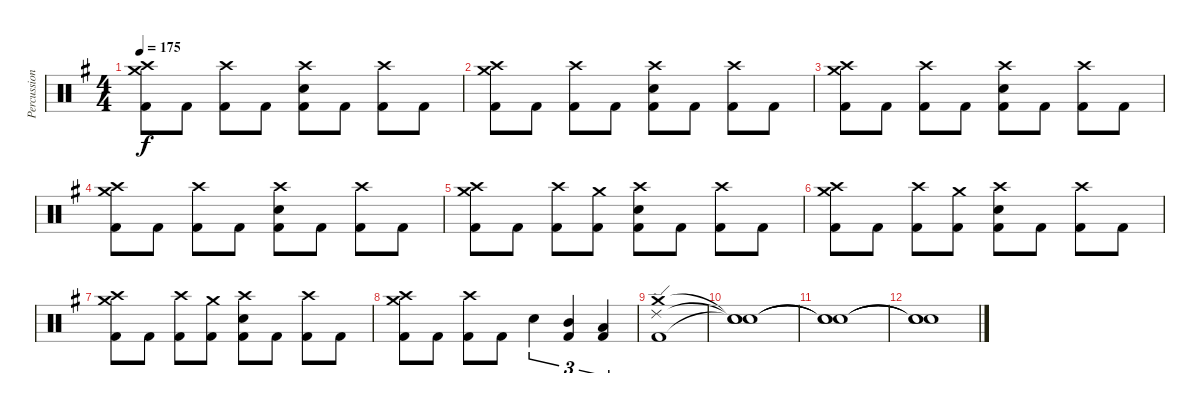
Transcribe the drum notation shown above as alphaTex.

\track ("Percussion" "Percussion") {instrument percussion}
\staff {score}
\articulation defaults
\ts (4 4)
\tempo 175
\clef neutral
\ks g
("Crash high (hit)" "Crash medium (hit)" "Kick (hit) 2").8{dy f} "Kick (hit) 2".8 ("Crash high (hit)" "Kick (hit) 2").8 "Kick (hit) 2".8 ("Crash high (hit)" "Snare (hit) 2" "Kick (hit) 2").8 "Kick (hit) 2".8 ("Crash high (hit)" "Kick (hit) 2").8 "Kick (hit) 2".8 |
("Crash high (hit)" "Crash medium (hit)" "Kick (hit) 2").8 "Kick (hit) 2".8 ("Crash high (hit)" "Kick (hit) 2").8 "Kick (hit) 2".8 ("Crash high (hit)" "Snare (hit) 2" "Kick (hit) 2").8 "Kick (hit) 2".8 ("Crash high (hit)" "Kick (hit) 2").8 "Kick (hit) 2".8 |
("Crash high (hit)" "Crash medium (hit)" "Kick (hit) 2").8 "Kick (hit) 2".8 ("Crash high (hit)" "Kick (hit) 2").8 "Kick (hit) 2".8 ("Crash high (hit)" "Snare (hit) 2" "Kick (hit) 2").8 "Kick (hit) 2".8 ("Crash high (hit)" "Kick (hit) 2").8 "Kick (hit) 2".8 |
("Crash high (hit)" "Crash medium (hit)" "Kick (hit) 2").8 "Kick (hit) 2".8 ("Crash high (hit)" "Kick (hit) 2").8 "Kick (hit) 2".8 ("Crash high (hit)" "Snare (hit) 2" "Kick (hit) 2").8 "Kick (hit) 2".8 ("Crash high (hit)" "Kick (hit) 2").8 "Kick (hit) 2".8 |
("Crash high (hit)" "Crash medium (hit)" "Kick (hit) 2").8 "Kick (hit) 2".8 ("Crash high (hit)" "Kick (hit) 2").8 ("Crash medium (hit)" "Kick (hit) 2").8 ("Crash high (hit)" "Snare (hit) 2" "Kick (hit) 2").8 "Kick (hit) 2".8 ("Crash high (hit)" "Kick (hit) 2").8 "Kick (hit) 2".8 |
("Crash high (hit)" "Crash medium (hit)" "Kick (hit) 2").8 "Kick (hit) 2".8 ("Crash high (hit)" "Kick (hit) 2").8 ("Crash medium (hit)" "Kick (hit) 2").8 ("Crash high (hit)" "Snare (hit) 2" "Kick (hit) 2").8 "Kick (hit) 2".8 ("Crash high (hit)" "Kick (hit) 2").8 "Kick (hit) 2".8 |
("Crash high (hit)" "Crash medium (hit)" "Kick (hit) 2").8 "Kick (hit) 2".8 ("Crash high (hit)" "Kick (hit) 2").8 ("Crash medium (hit)" "Kick (hit) 2").8 ("Crash high (hit)" "Snare (hit) 2" "Kick (hit) 2").8 "Kick (hit) 2".8 ("Crash high (hit)" "Kick (hit) 2").8 "Kick (hit) 2".8 |
("Crash high (hit)" "Crash medium (hit)" "Kick (hit) 2").8 "Kick (hit) 2".8 ("Crash high (hit)" "Kick (hit) 2").8 "Kick (hit) 2".8 "Snare (hit) 2".4{tu (3 2)} ("Mid Tom (hit)" "Kick (hit) 2").4{tu (3 2)} ("Low Floor Tom (hit)" "Kick (hit) 2").4{tu (3 2)} |
("Crash medium (hit)" "Ride (edge) 2" "Kick (hit) 2").1 |
("Snare (hit)"{t} "Snare (hit)"{t} "Snare (hit)"{t}).1 |
("Snare (hit)"{t} "Snare (hit)"{t} "Snare (hit)"{t}).1 |
("Snare (hit)"{t} "Snare (hit)"{t} "Snare (hit)"{t}).1
